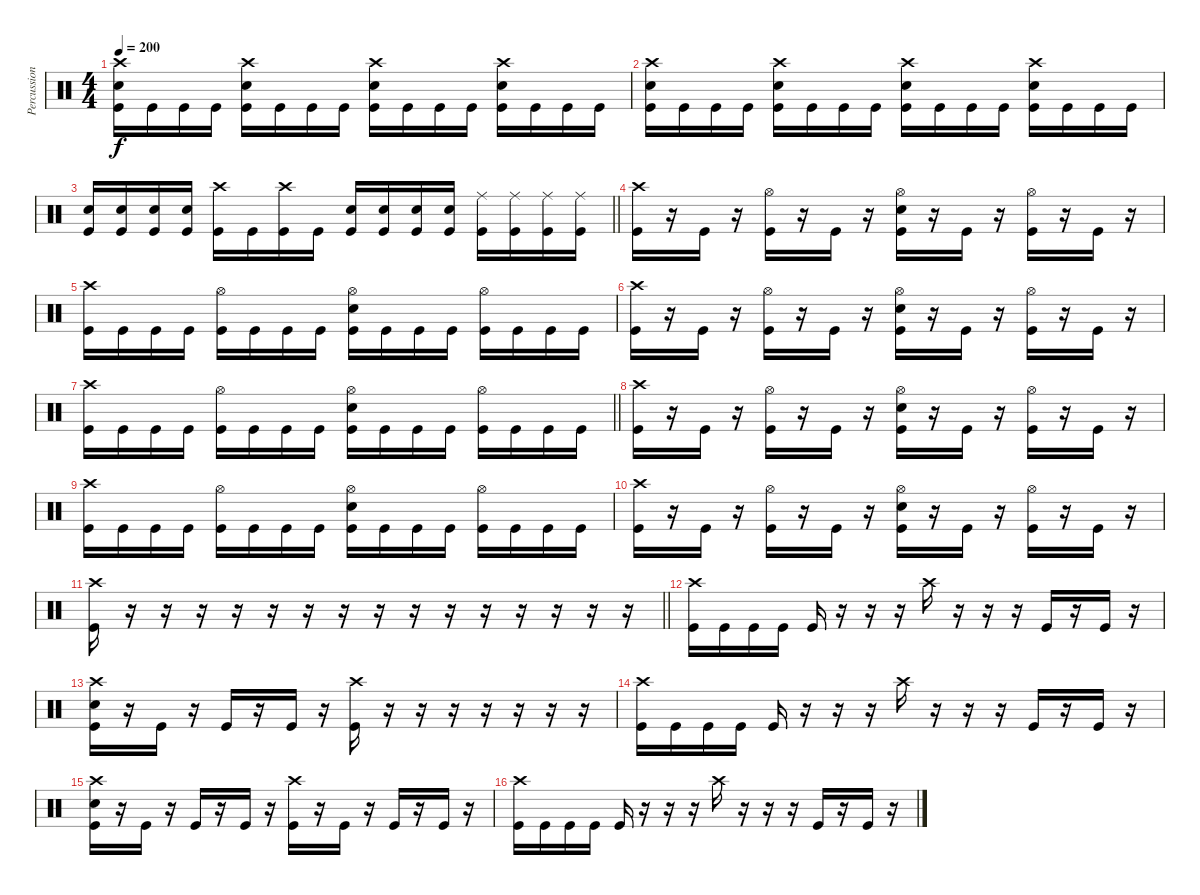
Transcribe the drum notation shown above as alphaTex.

\track ("Percussion" "Percussion") {instrument percussion}
\staff {score}
\articulation defaults
\ts (4 4)
\tempo 200
\clef neutral
\ks c
("Crash high (hit)" "Kick (hit)" "Electric Snare (hit)").16{dy f} "Kick (hit)".16 "Kick (hit)".16 "Kick (hit)".16 ("Crash high (hit)" "Kick (hit)" "Electric Snare (hit)").16 "Kick (hit)".16 "Kick (hit)".16 "Kick (hit)".16 ("Crash high (hit)" "Kick (hit)" "Electric Snare (hit)").16 "Kick (hit)".16 "Kick (hit)".16 "Kick (hit)".16 ("Crash high (hit)" "Kick (hit)" "Electric Snare (hit)").16 "Kick (hit)".16 "Kick (hit)".16 "Kick (hit)".16 |
("Crash high (hit)" "Kick (hit)" "Electric Snare (hit)").16 "Kick (hit)".16 "Kick (hit)".16 "Kick (hit)".16 ("Crash high (hit)" "Kick (hit)" "Electric Snare (hit)").16 "Kick (hit)".16 "Kick (hit)".16 "Kick (hit)".16 ("Crash high (hit)" "Kick (hit)" "Electric Snare (hit)").16 "Kick (hit)".16 "Kick (hit)".16 "Kick (hit)".16 ("Crash high (hit)" "Kick (hit)" "Electric Snare (hit)").16 "Kick (hit)".16 "Kick (hit)".16 "Kick (hit)".16 |
\barLineRight lightlight
("Kick (hit)" "Electric Snare (hit)").16 ("Kick (hit)" "Electric Snare (hit)").16 ("Kick (hit)" "Electric Snare (hit)").16 ("Kick (hit)" "Electric Snare (hit)").16 ("Crash high (hit)" "Kick (hit)").16 "Kick (hit)".16 ("Crash high (hit)" "Kick (hit)").16 "Kick (hit)".16 ("Kick (hit)" "Electric Snare (hit)").16 ("Kick (hit)" "Electric Snare (hit)").16 ("Kick (hit)" "Electric Snare (hit)").16 ("Kick (hit)" "Electric Snare (hit)").16 ("Ride (middle)" "Kick (hit)").16 ("Ride (middle)" "Kick (hit)").16 ("Ride (middle)" "Kick (hit)").16 ("Ride (middle)" "Kick (hit)").16 |
("Crash high (hit)" "Kick (hit)").16 r.16 "Kick (hit)".16 r.16 ("Hi-Hat (open)" "Kick (hit)").16 r.16 "Kick (hit)".16 r.16 ("Hi-Hat (open)" "Kick (hit)" "Electric Snare (hit)").16 r.16 "Kick (hit)".16 r.16 ("Hi-Hat (open)" "Kick (hit)").16 r.16 "Kick (hit)".16 r.16 |
("Crash high (hit)" "Kick (hit)").16 "Kick (hit)".16 "Kick (hit)".16 "Kick (hit)".16 ("Hi-Hat (open)" "Kick (hit)").16 "Kick (hit)".16 "Kick (hit)".16 "Kick (hit)".16 ("Hi-Hat (open)" "Kick (hit)" "Electric Snare (hit)").16 "Kick (hit)".16 "Kick (hit)".16 "Kick (hit)".16 ("Hi-Hat (open)" "Kick (hit)").16 "Kick (hit)".16 "Kick (hit)".16 "Kick (hit)".16 |
("Crash high (hit)" "Kick (hit)").16 r.16 "Kick (hit)".16 r.16 ("Hi-Hat (open)" "Kick (hit)").16 r.16 "Kick (hit)".16 r.16 ("Hi-Hat (open)" "Kick (hit)" "Electric Snare (hit)").16 r.16 "Kick (hit)".16 r.16 ("Hi-Hat (open)" "Kick (hit)").16 r.16 "Kick (hit)".16 r.16 |
\barLineRight lightlight
("Crash high (hit)" "Kick (hit)").16 "Kick (hit)".16 "Kick (hit)".16 "Kick (hit)".16 ("Hi-Hat (open)" "Kick (hit)").16 "Kick (hit)".16 "Kick (hit)".16 "Kick (hit)".16 ("Hi-Hat (open)" "Kick (hit)" "Electric Snare (hit)").16 "Kick (hit)".16 "Kick (hit)".16 "Kick (hit)".16 ("Hi-Hat (open)" "Kick (hit)").16 "Kick (hit)".16 "Kick (hit)".16 "Kick (hit)".16 |
("Crash high (hit)" "Kick (hit)").16 r.16 "Kick (hit)".16 r.16 ("Hi-Hat (open)" "Kick (hit)").16 r.16 "Kick (hit)".16 r.16 ("Hi-Hat (open)" "Kick (hit)" "Electric Snare (hit)").16 r.16 "Kick (hit)".16 r.16 ("Hi-Hat (open)" "Kick (hit)").16 r.16 "Kick (hit)".16 r.16 |
("Crash high (hit)" "Kick (hit)").16 "Kick (hit)".16 "Kick (hit)".16 "Kick (hit)".16 ("Hi-Hat (open)" "Kick (hit)").16 "Kick (hit)".16 "Kick (hit)".16 "Kick (hit)".16 ("Hi-Hat (open)" "Kick (hit)" "Electric Snare (hit)").16 "Kick (hit)".16 "Kick (hit)".16 "Kick (hit)".16 ("Hi-Hat (open)" "Kick (hit)").16 "Kick (hit)".16 "Kick (hit)".16 "Kick (hit)".16 |
("Crash high (hit)" "Kick (hit)").16 r.16 "Kick (hit)".16 r.16 ("Hi-Hat (open)" "Kick (hit)").16 r.16 "Kick (hit)".16 r.16 ("Hi-Hat (open)" "Kick (hit)" "Electric Snare (hit)").16 r.16 "Kick (hit)".16 r.16 ("Hi-Hat (open)" "Kick (hit)").16 r.16 "Kick (hit)".16 r.16 |
\barLineRight lightlight
("Crash high (hit)" "Kick (hit)").16 r.16 r.16 r.16 r.16 r.16 r.16 r.16 r.16 r.16 r.16 r.16 r.16 r.16 r.16 r.16 |
("Crash high (hit)" "Kick (hit)").16 "Kick (hit)".16 "Kick (hit)".16 "Kick (hit)".16 "Kick (hit)".16 r.16 r.16 r.16 "Crash high (hit)".16 r.16 r.16 r.16 "Kick (hit)".16 r.16 "Kick (hit)".16 r.16 |
("Crash high (hit)" "Kick (hit)" "Electric Snare (hit)").16 r.16 "Kick (hit)".16 r.16 "Kick (hit)".16 r.16 "Kick (hit)".16 r.16 ("Crash high (hit)" "Kick (hit)").16 r.16 r.16 r.16 r.16 r.16 r.16 r.16 |
("Crash high (hit)" "Kick (hit)").16 "Kick (hit)".16 "Kick (hit)".16 "Kick (hit)".16 "Kick (hit)".16 r.16 r.16 r.16 "Crash high (hit)".16 r.16 r.16 r.16 "Kick (hit)".16 r.16 "Kick (hit)".16 r.16 |
("Crash high (hit)" "Kick (hit)" "Electric Snare (hit)").16 r.16 "Kick (hit)".16 r.16 "Kick (hit)".16 r.16 "Kick (hit)".16 r.16 ("Crash high (hit)" "Kick (hit)").16 r.16 "Kick (hit)".16 r.16 "Kick (hit)".16 r.16 "Kick (hit)".16 r.16 |
("Crash high (hit)" "Kick (hit)").16 "Kick (hit)".16 "Kick (hit)".16 "Kick (hit)".16 "Kick (hit)".16 r.16 r.16 r.16 "Crash high (hit)".16 r.16 r.16 r.16 "Kick (hit)".16 r.16 "Kick (hit)".16 r.16
